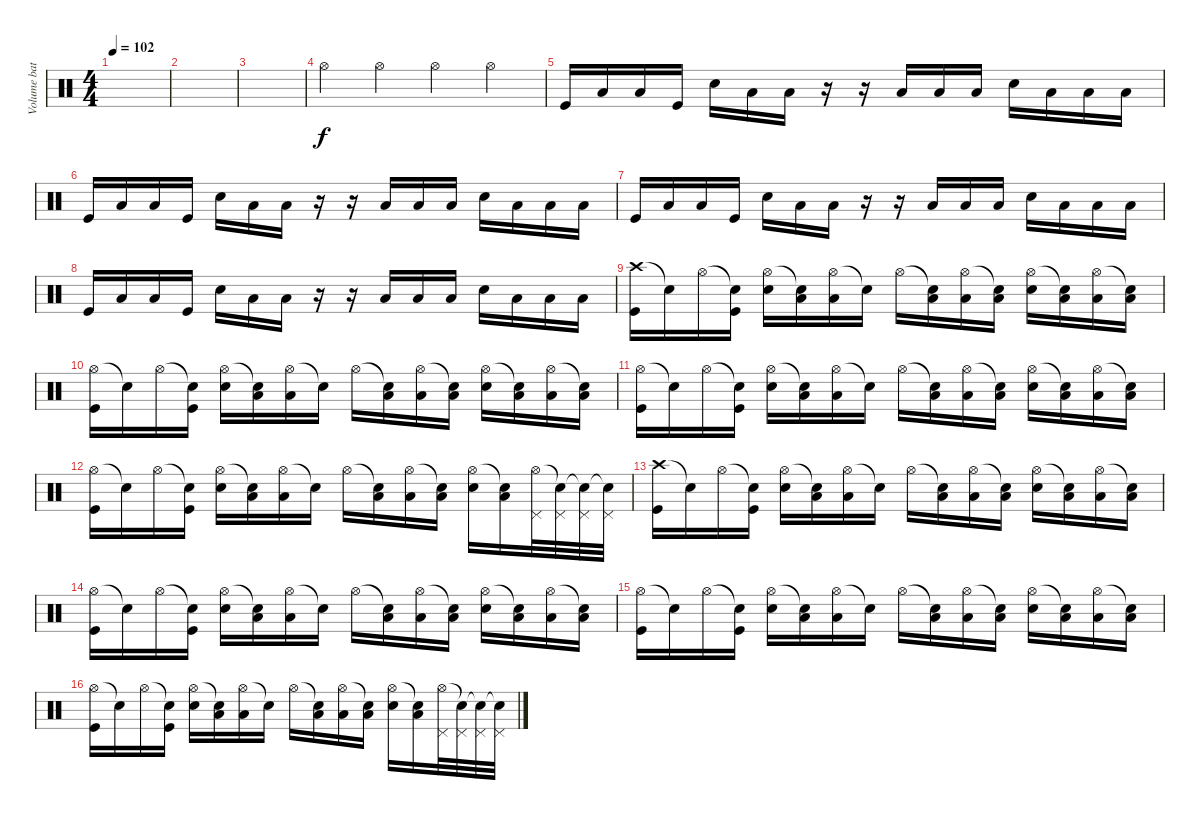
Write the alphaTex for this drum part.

\track ("Volume batera " "Volume bat") {instrument percussion}
\staff {score}
\articulation defaults
\ts (4 4)
\tempo 102
\clef neutral
\ks c
|
|
|
"Hi-Hat (open)".4 "Hi-Hat (open)".4 "Hi-Hat (open)".4 "Hi-Hat (open)".4 |
"Kick (hit)".16 "Low Tom (hit)".16 "Low Tom (hit)".16 "Kick (hit)".16 "Snare (hit) 2".16 "Low Tom (hit)".16 "Low Tom (hit)".16 r.16 r.16 "Low Tom (hit)".16 "Low Tom (hit)".16 "Low Tom (hit)".16 "Snare (hit) 2".16 "Low Tom (hit)".16 "Low Tom (hit)".16 "Low Tom (hit)".16 |
"Kick (hit)".16 "Low Tom (hit)".16 "Low Tom (hit)".16 "Kick (hit)".16 "Snare (hit) 2".16 "Low Tom (hit)".16 "Low Tom (hit)".16 r.16 r.16 "Low Tom (hit)".16 "Low Tom (hit)".16 "Low Tom (hit)".16 "Snare (hit) 2".16 "Low Tom (hit)".16 "Low Tom (hit)".16 "Low Tom (hit)".16 |
"Kick (hit)".16 "Low Tom (hit)".16 "Low Tom (hit)".16 "Kick (hit)".16 "Snare (hit) 2".16 "Low Tom (hit)".16 "Low Tom (hit)".16 r.16 r.16 "Low Tom (hit)".16 "Low Tom (hit)".16 "Low Tom (hit)".16 "Snare (hit) 2".16 "Low Tom (hit)".16 "Low Tom (hit)".16 "Low Tom (hit)".16 |
"Kick (hit)".16 "Low Tom (hit)".16 "Low Tom (hit)".16 "Kick (hit)".16 "Snare (hit) 2".16 "Low Tom (hit)".16 "Low Tom (hit)".16 r.16 r.16 "Low Tom (hit)".16 "Low Tom (hit)".16 "Low Tom (hit)".16 "Snare (hit) 2".16 "Low Tom (hit)".16 "Low Tom (hit)".16 "Low Tom (hit)".16 |
("Crash high (hit)" "Kick (hit)").16 "Snare (hit)"{t}.16 "Hi-Hat (open)".16 ("Snare (hit)"{t} "Kick (hit)").16 ("Hi-Hat (open)" "Snare (hit) 2").16 ("Snare (hit)"{t} "Low Tom (hit)").16 ("Hi-Hat (open)" "Low Tom (hit)").16 "Snare (hit)"{t}.16 "Hi-Hat (open)".16 ("Snare (hit)"{t} "Low Tom (hit)").16 ("Hi-Hat (open)" "Low Tom (hit)").16 ("Snare (hit)"{t} "Low Tom (hit)").16 ("Hi-Hat (open)" "Snare (hit) 2").16 ("Snare (hit)"{t} "Low Tom (hit)").16 ("Hi-Hat (open)" "Low Tom (hit)").16 ("Snare (hit)"{t} "Low Tom (hit)").16 |
("Hi-Hat (open)" "Kick (hit)").16 "Snare (hit)"{t}.16 "Hi-Hat (open)".16 ("Snare (hit)"{t} "Kick (hit)").16 ("Hi-Hat (open)" "Snare (hit) 2").16 ("Snare (hit)"{t} "Low Tom (hit)").16 ("Hi-Hat (open)" "Low Tom (hit)").16 "Snare (hit)"{t}.16 "Hi-Hat (open)".16 ("Snare (hit)"{t} "Low Tom (hit)").16 ("Hi-Hat (open)" "Low Tom (hit)").16 ("Snare (hit)"{t} "Low Tom (hit)").16 ("Hi-Hat (open)" "Snare (hit) 2").16 ("Snare (hit)"{t} "Low Tom (hit)").16 ("Hi-Hat (open)" "Low Tom (hit)").16 ("Snare (hit)"{t} "Low Tom (hit)").16 |
("Hi-Hat (open)" "Kick (hit)").16 "Snare (hit)"{t}.16 "Hi-Hat (open)".16 ("Snare (hit)"{t} "Kick (hit)").16 ("Hi-Hat (open)" "Snare (hit) 2").16 ("Snare (hit)"{t} "Low Tom (hit)").16 ("Hi-Hat (open)" "Low Tom (hit)").16 "Snare (hit)"{t}.16 "Hi-Hat (open)".16 ("Snare (hit)"{t} "Low Tom (hit)").16 ("Hi-Hat (open)" "Low Tom (hit)").16 ("Snare (hit)"{t} "Low Tom (hit)").16 ("Hi-Hat (open)" "Snare (hit) 2").16 ("Snare (hit)"{t} "Low Tom (hit)").16 ("Hi-Hat (open)" "Low Tom (hit)").16 ("Snare (hit)"{t} "Low Tom (hit)").16 |
("Hi-Hat (open)" "Kick (hit)").16 "Snare (hit)"{t}.16 "Hi-Hat (open)".16 ("Snare (hit)"{t} "Kick (hit)").16 ("Hi-Hat (open)" "Snare (hit) 2").16 ("Snare (hit)"{t} "Low Tom (hit)").16 ("Hi-Hat (open)" "Low Tom (hit)").16 "Snare (hit)"{t}.16 "Hi-Hat (open)".16 ("Snare (hit)"{t} "Low Tom (hit)").16 ("Hi-Hat (open)" "Low Tom (hit)").16 ("Snare (hit)"{t} "Low Tom (hit)").16 ("Hi-Hat (open)" "Snare (hit) 2").16 ("Snare (hit)"{t} "Low Tom (hit)").16 ("Hi-Hat (open)" "Pedal Hi-Hat (hit)").32 ("Snare (hit)"{t} "Pedal Hi-Hat (hit)").32 ("Snare (hit)"{t} "Pedal Hi-Hat (hit)").32 ("Snare (hit)"{t} "Pedal Hi-Hat (hit)").32 |
("Crash high (hit)" "Kick (hit)").16 "Snare (hit)"{t}.16 "Hi-Hat (open)".16 ("Snare (hit)"{t} "Kick (hit)").16 ("Hi-Hat (open)" "Snare (hit) 2").16 ("Snare (hit)"{t} "Low Tom (hit)").16 ("Hi-Hat (open)" "Low Tom (hit)").16 "Snare (hit)"{t}.16 "Hi-Hat (open)".16 ("Snare (hit)"{t} "Low Tom (hit)").16 ("Hi-Hat (open)" "Low Tom (hit)").16 ("Snare (hit)"{t} "Low Tom (hit)").16 ("Hi-Hat (open)" "Snare (hit) 2").16 ("Snare (hit)"{t} "Low Tom (hit)").16 ("Hi-Hat (open)" "Low Tom (hit)").16 ("Snare (hit)"{t} "Low Tom (hit)").16 |
("Hi-Hat (open)" "Kick (hit)").16 "Snare (hit)"{t}.16 "Hi-Hat (open)".16 ("Snare (hit)"{t} "Kick (hit)").16 ("Hi-Hat (open)" "Snare (hit) 2").16 ("Snare (hit)"{t} "Low Tom (hit)").16 ("Hi-Hat (open)" "Low Tom (hit)").16 "Snare (hit)"{t}.16 "Hi-Hat (open)".16 ("Snare (hit)"{t} "Low Tom (hit)").16 ("Hi-Hat (open)" "Low Tom (hit)").16 ("Snare (hit)"{t} "Low Tom (hit)").16 ("Hi-Hat (open)" "Snare (hit) 2").16 ("Snare (hit)"{t} "Low Tom (hit)").16 ("Hi-Hat (open)" "Low Tom (hit)").16 ("Snare (hit)"{t} "Low Tom (hit)").16 |
("Hi-Hat (open)" "Kick (hit)").16 "Snare (hit)"{t}.16 "Hi-Hat (open)".16 ("Snare (hit)"{t} "Kick (hit)").16 ("Hi-Hat (open)" "Snare (hit) 2").16 ("Snare (hit)"{t} "Low Tom (hit)").16 ("Hi-Hat (open)" "Low Tom (hit)").16 "Snare (hit)"{t}.16 "Hi-Hat (open)".16 ("Snare (hit)"{t} "Low Tom (hit)").16 ("Hi-Hat (open)" "Low Tom (hit)").16 ("Snare (hit)"{t} "Low Tom (hit)").16 ("Hi-Hat (open)" "Snare (hit) 2").16 ("Snare (hit)"{t} "Low Tom (hit)").16 ("Hi-Hat (open)" "Low Tom (hit)").16 ("Snare (hit)"{t} "Low Tom (hit)").16 |
("Hi-Hat (open)" "Kick (hit)").16 "Snare (hit)"{t}.16 "Hi-Hat (open)".16 ("Snare (hit)"{t} "Kick (hit)").16 ("Hi-Hat (open)" "Snare (hit) 2").16 ("Snare (hit)"{t} "Low Tom (hit)").16 ("Hi-Hat (open)" "Low Tom (hit)").16 "Snare (hit)"{t}.16 "Hi-Hat (open)".16 ("Snare (hit)"{t} "Low Tom (hit)").16 ("Hi-Hat (open)" "Low Tom (hit)").16 ("Snare (hit)"{t} "Low Tom (hit)").16 ("Hi-Hat (open)" "Snare (hit) 2").16 ("Snare (hit)"{t} "Low Tom (hit)").16 ("Hi-Hat (open)" "Pedal Hi-Hat (hit)").32 ("Snare (hit)"{t} "Pedal Hi-Hat (hit)").32 ("Snare (hit)"{t} "Pedal Hi-Hat (hit)").32 ("Snare (hit)"{t} "Pedal Hi-Hat (hit)").32
